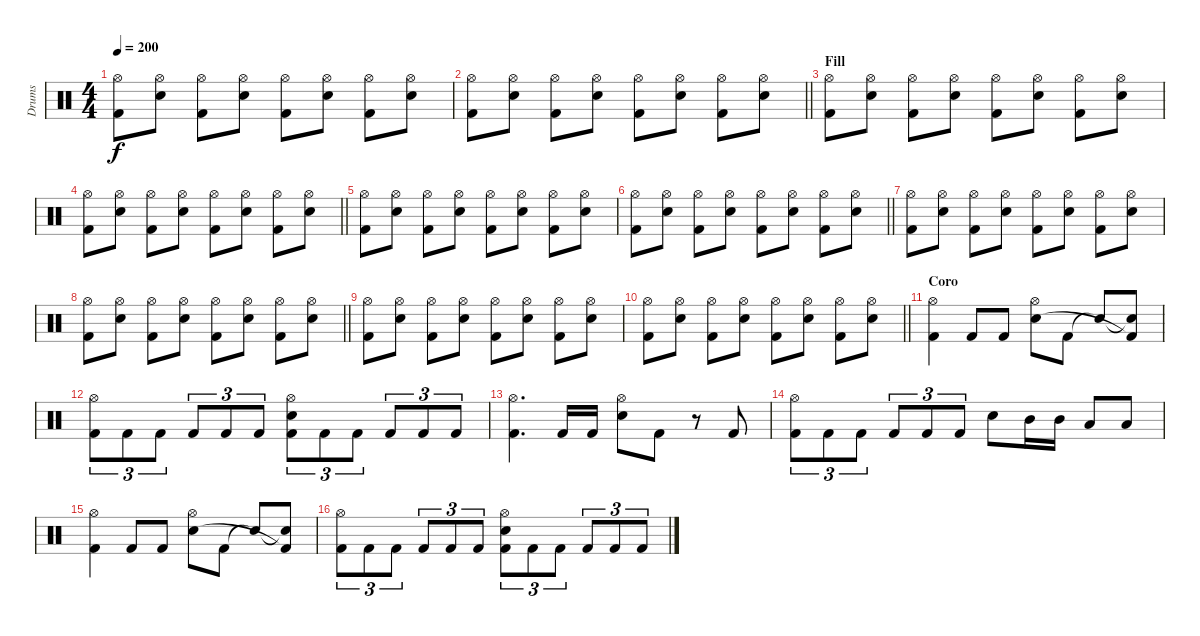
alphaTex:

\track ("Drums" "Drums") {instrument percussion}
\staff {score}
\articulation defaults
\ts (4 4)
\tempo 200
\clef neutral
\ks c
("Hi-Hat (open)" "Kick (hit) 2").8{dy f} ("Hi-Hat (open)" "Electric Snare (hit)").8 ("Hi-Hat (open)" "Kick (hit) 2").8 ("Hi-Hat (open)" "Electric Snare (hit)").8 ("Hi-Hat (open)" "Kick (hit) 2").8 ("Hi-Hat (open)" "Electric Snare (hit)").8 ("Hi-Hat (open)" "Kick (hit) 2").8 ("Hi-Hat (open)" "Electric Snare (hit)").8 |
\barLineRight lightlight
("Hi-Hat (open)" "Kick (hit) 2").8 ("Hi-Hat (open)" "Electric Snare (hit)").8 ("Hi-Hat (open)" "Kick (hit) 2").8 ("Hi-Hat (open)" "Electric Snare (hit)").8 ("Hi-Hat (open)" "Kick (hit) 2").8 ("Hi-Hat (open)" "Electric Snare (hit)").8 ("Hi-Hat (open)" "Kick (hit) 2").8 ("Hi-Hat (open)" "Electric Snare (hit)").8 |
\section ("" "Fill")
("Hi-Hat (open)" "Kick (hit) 2").8 ("Hi-Hat (open)" "Electric Snare (hit)").8 ("Hi-Hat (open)" "Kick (hit) 2").8 ("Hi-Hat (open)" "Electric Snare (hit)").8 ("Hi-Hat (open)" "Kick (hit) 2").8 ("Hi-Hat (open)" "Electric Snare (hit)").8 ("Hi-Hat (open)" "Kick (hit) 2").8 ("Hi-Hat (open)" "Electric Snare (hit)").8 |
\barLineRight lightlight
("Hi-Hat (open)" "Kick (hit) 2").8 ("Hi-Hat (open)" "Electric Snare (hit)").8 ("Hi-Hat (open)" "Kick (hit) 2").8 ("Hi-Hat (open)" "Electric Snare (hit)").8 ("Hi-Hat (open)" "Kick (hit) 2").8 ("Hi-Hat (open)" "Electric Snare (hit)").8 ("Hi-Hat (open)" "Kick (hit) 2").8 ("Hi-Hat (open)" "Electric Snare (hit)").8 |
("Hi-Hat (open)" "Kick (hit) 2").8 ("Hi-Hat (open)" "Electric Snare (hit)").8 ("Hi-Hat (open)" "Kick (hit) 2").8 ("Hi-Hat (open)" "Electric Snare (hit)").8 ("Hi-Hat (open)" "Kick (hit) 2").8 ("Hi-Hat (open)" "Electric Snare (hit)").8 ("Hi-Hat (open)" "Kick (hit) 2").8 ("Hi-Hat (open)" "Electric Snare (hit)").8 |
\barLineRight lightlight
("Hi-Hat (open)" "Kick (hit) 2").8 ("Hi-Hat (open)" "Electric Snare (hit)").8 ("Hi-Hat (open)" "Kick (hit) 2").8 ("Hi-Hat (open)" "Electric Snare (hit)").8 ("Hi-Hat (open)" "Kick (hit) 2").8 ("Hi-Hat (open)" "Electric Snare (hit)").8 ("Hi-Hat (open)" "Kick (hit) 2").8 ("Hi-Hat (open)" "Electric Snare (hit)").8 |
("Hi-Hat (open)" "Kick (hit) 2").8 ("Hi-Hat (open)" "Electric Snare (hit)").8 ("Hi-Hat (open)" "Kick (hit) 2").8 ("Hi-Hat (open)" "Electric Snare (hit)").8 ("Hi-Hat (open)" "Kick (hit) 2").8 ("Hi-Hat (open)" "Electric Snare (hit)").8 ("Hi-Hat (open)" "Kick (hit) 2").8 ("Hi-Hat (open)" "Electric Snare (hit)").8 |
\barLineRight lightlight
("Hi-Hat (open)" "Kick (hit) 2").8 ("Hi-Hat (open)" "Electric Snare (hit)").8 ("Hi-Hat (open)" "Kick (hit) 2").8 ("Hi-Hat (open)" "Electric Snare (hit)").8 ("Hi-Hat (open)" "Kick (hit) 2").8 ("Hi-Hat (open)" "Electric Snare (hit)").8 ("Hi-Hat (open)" "Kick (hit) 2").8 ("Hi-Hat (open)" "Electric Snare (hit)").8 |
("Hi-Hat (open)" "Kick (hit) 2").8 ("Hi-Hat (open)" "Electric Snare (hit)").8 ("Hi-Hat (open)" "Kick (hit) 2").8 ("Hi-Hat (open)" "Electric Snare (hit)").8 ("Hi-Hat (open)" "Kick (hit) 2").8 ("Hi-Hat (open)" "Electric Snare (hit)").8 ("Hi-Hat (open)" "Kick (hit) 2").8 ("Hi-Hat (open)" "Electric Snare (hit)").8 |
\barLineRight lightlight
("Hi-Hat (open)" "Kick (hit) 2").8 ("Hi-Hat (open)" "Electric Snare (hit)").8 ("Hi-Hat (open)" "Kick (hit) 2").8 ("Hi-Hat (open)" "Electric Snare (hit)").8 ("Hi-Hat (open)" "Kick (hit) 2").8 ("Hi-Hat (open)" "Electric Snare (hit)").8 ("Hi-Hat (open)" "Kick (hit) 2").8 ("Hi-Hat (open)" "Electric Snare (hit)").8 |
\section ("" "Coro")
("Hi-Hat (open)" "Kick (hit) 2").4 "Kick (hit) 2".8 "Kick (hit) 2".8 ("Hi-Hat (open)" "Electric Snare (hit)").8 "Kick (hit) 2".8 "Snare (hit)"{t}.8 ("Snare (hit)"{t} "Kick (hit) 2"{t}).8 |
("Hi-Hat (open)" "Kick (hit) 2").8{tu (3 2)} "Kick (hit) 2".8{tu (3 2)} "Kick (hit) 2".8{tu (3 2)} "Kick (hit) 2".8{tu (3 2)} "Kick (hit) 2".8{tu (3 2)} "Kick (hit) 2".8{tu (3 2)} ("Hi-Hat (open)" "Electric Snare (hit)" "Kick (hit) 2").8{tu (3 2)} "Kick (hit) 2".8{tu (3 2)} "Kick (hit) 2".8{tu (3 2)} "Kick (hit) 2".8{tu (3 2)} "Kick (hit) 2".8{tu (3 2)} "Kick (hit) 2".8{tu (3 2)} |
("Hi-Hat (open)" "Kick (hit) 2").4{d} "Kick (hit) 2".16 "Kick (hit) 2".16 ("Hi-Hat (open)" "Electric Snare (hit)").8 "Kick (hit) 2".8 r.8 "Kick (hit) 2".8 |
("Hi-Hat (open)" "Kick (hit) 2").8{tu (3 2)} "Kick (hit) 2".8{tu (3 2)} "Kick (hit) 2".8{tu (3 2)} "Kick (hit) 2".8{tu (3 2)} "Kick (hit) 2".8{tu (3 2)} "Kick (hit) 2".8{tu (3 2)} "Electric Snare (hit)".8 "Mid Tom (hit)".16 "Mid Tom (hit)".16 "Low Tom (hit)".8 "Low Tom (hit)".8 |
("Hi-Hat (open)" "Kick (hit) 2").4 "Kick (hit) 2".8 "Kick (hit) 2".8 ("Hi-Hat (open)" "Electric Snare (hit)").8 "Kick (hit) 2".8 "Snare (hit)"{t}.8 ("Snare (hit)"{t} "Kick (hit) 2"{t}).8 |
("Hi-Hat (open)" "Kick (hit) 2").8{tu (3 2)} "Kick (hit) 2".8{tu (3 2)} "Kick (hit) 2".8{tu (3 2)} "Kick (hit) 2".8{tu (3 2)} "Kick (hit) 2".8{tu (3 2)} "Kick (hit) 2".8{tu (3 2)} ("Hi-Hat (open)" "Electric Snare (hit)" "Kick (hit) 2").8{tu (3 2)} "Kick (hit) 2".8{tu (3 2)} "Kick (hit) 2".8{tu (3 2)} "Kick (hit) 2".8{tu (3 2)} "Kick (hit) 2".8{tu (3 2)} "Kick (hit) 2".8{tu (3 2)}
